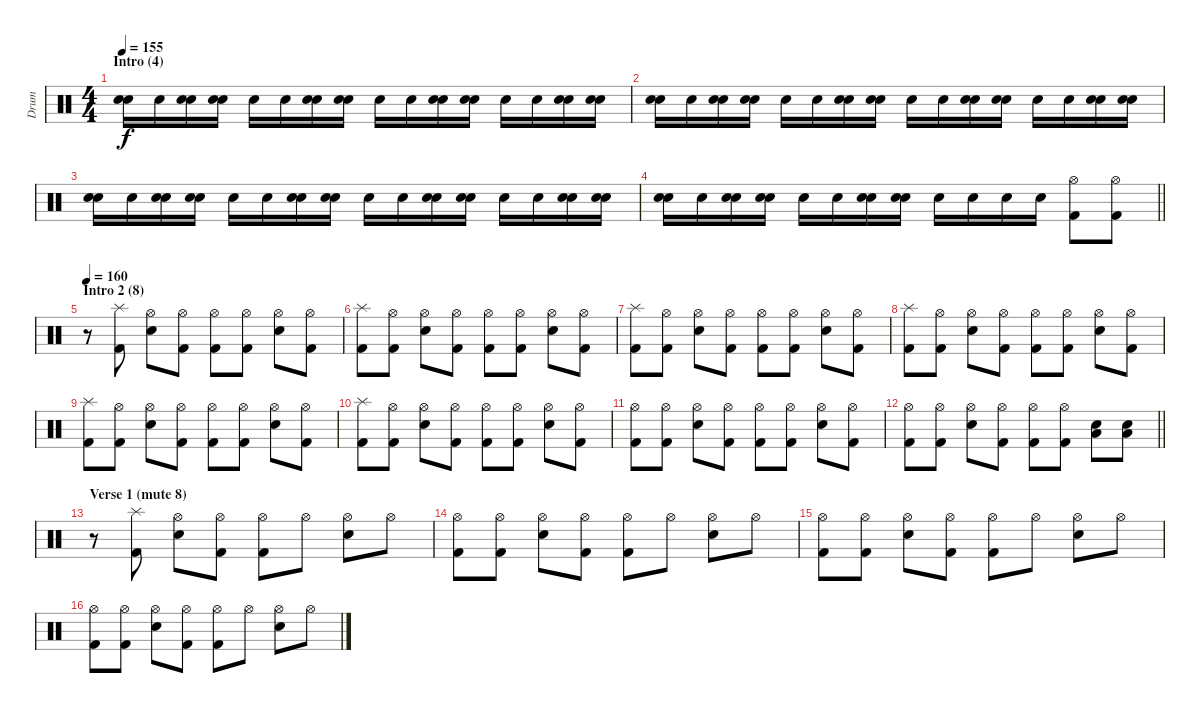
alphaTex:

\track ("Drum" "Drum") {instrument percussion}
\staff {score}
\articulation defaults
\ts (4 4)
\section ("" "Intro (4)")
\tempo 155
\clef neutral
\ks c
("Snare (hit) 2" "Snare (hit) 2").16{dy f} "Snare (hit) 2".16 ("Snare (hit) 2" "Snare (hit) 2").16 ("Snare (hit) 2" "Snare (hit) 2").16 "Snare (hit) 2".16 "Snare (hit) 2".16 ("Snare (hit) 2" "Snare (hit) 2").16 ("Snare (hit) 2" "Snare (hit) 2").16 "Snare (hit) 2".16 "Snare (hit) 2".16 ("Snare (hit) 2" "Snare (hit) 2").16 ("Snare (hit) 2" "Snare (hit) 2").16 "Snare (hit) 2".16 "Snare (hit) 2".16 ("Snare (hit) 2" "Snare (hit) 2").16 ("Snare (hit) 2" "Snare (hit) 2").16 |
("Snare (hit) 2" "Snare (hit) 2").16 "Snare (hit) 2".16 ("Snare (hit) 2" "Snare (hit) 2").16 ("Snare (hit) 2" "Snare (hit) 2").16 "Snare (hit) 2".16 "Snare (hit) 2".16 ("Snare (hit) 2" "Snare (hit) 2").16 ("Snare (hit) 2" "Snare (hit) 2").16 "Snare (hit) 2".16 "Snare (hit) 2".16 ("Snare (hit) 2" "Snare (hit) 2").16 ("Snare (hit) 2" "Snare (hit) 2").16 "Snare (hit) 2".16 "Snare (hit) 2".16 ("Snare (hit) 2" "Snare (hit) 2").16 ("Snare (hit) 2" "Snare (hit) 2").16 |
("Snare (hit) 2" "Snare (hit) 2").16 "Snare (hit) 2".16 ("Snare (hit) 2" "Snare (hit) 2").16 ("Snare (hit) 2" "Snare (hit) 2").16 "Snare (hit) 2".16 "Snare (hit) 2".16 ("Snare (hit) 2" "Snare (hit) 2").16 ("Snare (hit) 2" "Snare (hit) 2").16 "Snare (hit) 2".16 "Snare (hit) 2".16 ("Snare (hit) 2" "Snare (hit) 2").16 ("Snare (hit) 2" "Snare (hit) 2").16 "Snare (hit) 2".16 "Snare (hit) 2".16 ("Snare (hit) 2" "Snare (hit) 2").16 ("Snare (hit) 2" "Snare (hit) 2").16 |
\barLineRight lightlight
("Snare (hit) 2" "Snare (hit) 2").16 "Snare (hit) 2".16 ("Snare (hit) 2" "Snare (hit) 2").16 ("Snare (hit) 2" "Snare (hit) 2").16 "Snare (hit) 2".16 "Snare (hit) 2".16 ("Snare (hit) 2" "Snare (hit) 2").16 ("Snare (hit) 2" "Snare (hit) 2").16 "Snare (hit) 2".16 "Snare (hit) 2".16 "Snare (hit) 2".16 "Snare (hit) 2".16 ("Hi-Hat (open)" "Kick (hit) 2").8 ("Hi-Hat (open)" "Kick (hit) 2").8 |
\section ("" "Intro 2 (8)")
\tempo 160
r.8 ("Splash (hit)" "Kick (hit) 2").8 ("Hi-Hat (open)" "Snare (hit) 2").8 ("Hi-Hat (open)" "Kick (hit) 2").8 ("Hi-Hat (open)" "Kick (hit) 2").8 ("Hi-Hat (open)" "Kick (hit) 2").8 ("Hi-Hat (open)" "Snare (hit) 2").8 ("Hi-Hat (open)" "Kick (hit) 2").8 |
("Splash (hit)" "Kick (hit) 2").8 ("Hi-Hat (open)" "Kick (hit) 2").8 ("Hi-Hat (open)" "Snare (hit) 2").8 ("Hi-Hat (open)" "Kick (hit) 2").8 ("Hi-Hat (open)" "Kick (hit) 2").8 ("Hi-Hat (open)" "Kick (hit) 2").8 ("Hi-Hat (open)" "Snare (hit) 2").8 ("Hi-Hat (open)" "Kick (hit) 2").8 |
("Splash (hit)" "Kick (hit) 2").8 ("Hi-Hat (open)" "Kick (hit) 2").8 ("Hi-Hat (open)" "Snare (hit) 2").8 ("Hi-Hat (open)" "Kick (hit) 2").8 ("Hi-Hat (open)" "Kick (hit) 2").8 ("Hi-Hat (open)" "Kick (hit) 2").8 ("Hi-Hat (open)" "Snare (hit) 2").8 ("Hi-Hat (open)" "Kick (hit) 2").8 |
("Splash (hit)" "Kick (hit) 2").8 ("Hi-Hat (open)" "Kick (hit) 2").8 ("Hi-Hat (open)" "Snare (hit) 2").8 ("Hi-Hat (open)" "Kick (hit) 2").8 ("Hi-Hat (open)" "Kick (hit) 2").8 ("Hi-Hat (open)" "Kick (hit) 2").8 ("Hi-Hat (open)" "Snare (hit) 2").8 ("Hi-Hat (open)" "Kick (hit) 2").8 |
("Splash (hit)" "Kick (hit) 2").8 ("Hi-Hat (open)" "Kick (hit) 2").8 ("Hi-Hat (open)" "Snare (hit) 2").8 ("Hi-Hat (open)" "Kick (hit) 2").8 ("Hi-Hat (open)" "Kick (hit) 2").8 ("Hi-Hat (open)" "Kick (hit) 2").8 ("Hi-Hat (open)" "Snare (hit) 2").8 ("Hi-Hat (open)" "Kick (hit) 2").8 |
("Splash (hit)" "Kick (hit) 2").8 ("Hi-Hat (open)" "Kick (hit) 2").8 ("Hi-Hat (open)" "Snare (hit) 2").8 ("Hi-Hat (open)" "Kick (hit) 2").8 ("Hi-Hat (open)" "Kick (hit) 2").8 ("Hi-Hat (open)" "Kick (hit) 2").8 ("Hi-Hat (open)" "Snare (hit) 2").8 ("Hi-Hat (open)" "Kick (hit) 2").8 |
("Hi-Hat (open)" "Kick (hit) 2").8 ("Hi-Hat (open)" "Kick (hit) 2").8 ("Hi-Hat (open)" "Snare (hit) 2").8 ("Hi-Hat (open)" "Kick (hit) 2").8 ("Hi-Hat (open)" "Kick (hit) 2").8 ("Hi-Hat (open)" "Kick (hit) 2").8 ("Hi-Hat (open)" "Snare (hit) 2").8 ("Hi-Hat (open)" "Kick (hit) 2").8 |
\barLineRight lightlight
("Hi-Hat (open)" "Kick (hit) 2").8 ("Hi-Hat (open)" "Kick (hit) 2").8 ("Hi-Hat (open)" "Snare (hit) 2").8 ("Hi-Hat (open)" "Kick (hit) 2").8 ("Hi-Hat (open)" "Kick (hit) 2").8 ("Hi-Hat (open)" "Kick (hit) 2").8 ("Low Floor Tom (hit)" "Snare (hit) 2").8 ("Low Floor Tom (hit)" "Snare (hit) 2").8 |
\section ("" "Verse 1 (mute 8)")
r.8 ("Splash (hit)" "Kick (hit) 2").8 ("Hi-Hat (open)" "Snare (hit) 2").8 ("Hi-Hat (open)" "Kick (hit) 2").8 ("Hi-Hat (open)" "Kick (hit) 2").8 "Hi-Hat (open)".8 ("Hi-Hat (open)" "Snare (hit) 2").8 "Hi-Hat (open)".8 |
("Hi-Hat (open)" "Kick (hit) 2").8 ("Hi-Hat (open)" "Kick (hit) 2").8 ("Hi-Hat (open)" "Snare (hit) 2").8 ("Hi-Hat (open)" "Kick (hit) 2").8 ("Hi-Hat (open)" "Kick (hit) 2").8 "Hi-Hat (open)".8 ("Hi-Hat (open)" "Snare (hit) 2").8 "Hi-Hat (open)".8 |
("Hi-Hat (open)" "Kick (hit) 2").8 ("Hi-Hat (open)" "Kick (hit) 2").8 ("Hi-Hat (open)" "Snare (hit) 2").8 ("Hi-Hat (open)" "Kick (hit) 2").8 ("Hi-Hat (open)" "Kick (hit) 2").8 "Hi-Hat (open)".8 ("Hi-Hat (open)" "Snare (hit) 2").8 "Hi-Hat (open)".8 |
("Hi-Hat (open)" "Kick (hit) 2").8 ("Hi-Hat (open)" "Kick (hit) 2").8 ("Hi-Hat (open)" "Snare (hit) 2").8 ("Hi-Hat (open)" "Kick (hit) 2").8 ("Hi-Hat (open)" "Kick (hit) 2").8 "Hi-Hat (open)".8 ("Hi-Hat (open)" "Snare (hit) 2").8 "Hi-Hat (open)".8
